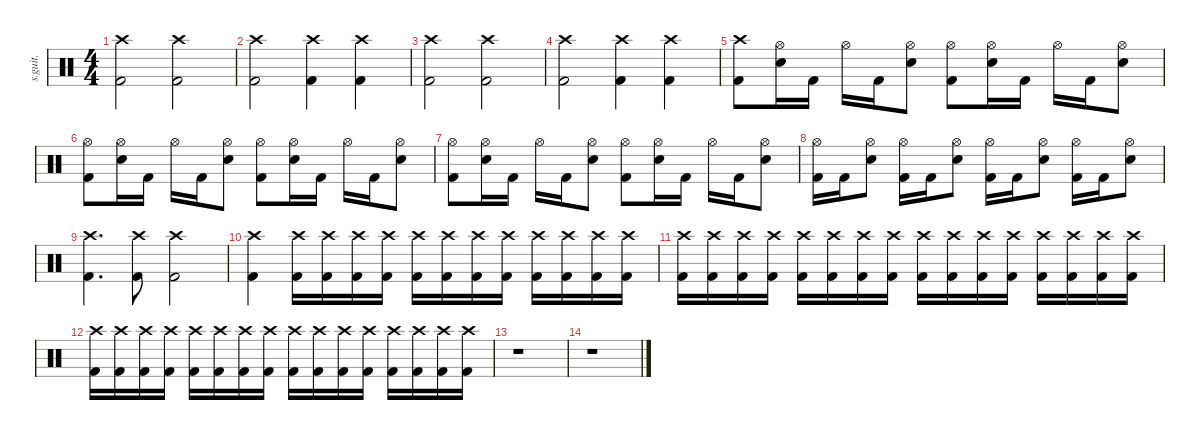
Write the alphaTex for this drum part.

\defaultSystemsLayout 4
\hideDynamics
\bracketExtendMode nobrackets
\track ("" "s.guit.") {instrument percussion}
\staff {score}
\articulation defaults
\ts (4 4)
\tempo (160 hide)
\clef neutral
\ks c
("Crash high (hit)" "Kick (hit) 2").2{dy f} ("Crash high (hit)" "Kick (hit) 2").2 |
("Crash high (hit)" "Kick (hit) 2").2 ("Crash high (hit)" "Kick (hit) 2").4 ("Crash high (hit)" "Kick (hit) 2").4 |
("Crash high (hit)" "Kick (hit) 2").2 ("Crash high (hit)" "Kick (hit) 2").2 |
("Crash high (hit)" "Kick (hit) 2").2 ("Crash high (hit)" "Kick (hit) 2").4 ("Crash high (hit)" "Kick (hit) 2").4 |
("Crash high (hit)" "Kick (hit) 2").8 ("Hi-Hat (open)" "Snare (hit) 2").16 "Kick (hit) 2".16 "Hi-Hat (open)".16 "Kick (hit) 2".16 ("Hi-Hat (open)" "Snare (hit) 2").8 ("Hi-Hat (open)" "Kick (hit) 2").8 ("Hi-Hat (open)" "Snare (hit) 2").16 "Kick (hit) 2".16 "Hi-Hat (open)".16 "Kick (hit) 2".16 ("Hi-Hat (open)" "Snare (hit) 2").8 |
("Hi-Hat (open)" "Kick (hit) 2").8 ("Hi-Hat (open)" "Snare (hit) 2").16 "Kick (hit) 2".16 "Hi-Hat (open)".16 "Kick (hit) 2".16 ("Hi-Hat (open)" "Snare (hit) 2").8 ("Hi-Hat (open)" "Kick (hit) 2").8 ("Hi-Hat (open)" "Snare (hit) 2").16 "Kick (hit) 2".16 "Hi-Hat (open)".16 "Kick (hit) 2".16 ("Hi-Hat (open)" "Snare (hit) 2").8 |
("Hi-Hat (open)" "Kick (hit) 2").8 ("Hi-Hat (open)" "Snare (hit) 2").16 "Kick (hit) 2".16 "Hi-Hat (open)".16 "Kick (hit) 2".16 ("Hi-Hat (open)" "Snare (hit) 2").8 ("Hi-Hat (open)" "Kick (hit) 2").8 ("Hi-Hat (open)" "Snare (hit) 2").16 "Kick (hit) 2".16 "Hi-Hat (open)".16 "Kick (hit) 2".16 ("Hi-Hat (open)" "Snare (hit) 2").8 |
("Hi-Hat (open)" "Kick (hit) 2").16 "Kick (hit) 2".16 ("Hi-Hat (open)" "Snare (hit) 2").8 ("Hi-Hat (open)" "Kick (hit) 2").16 "Kick (hit) 2".16 ("Hi-Hat (open)" "Snare (hit) 2").8 ("Hi-Hat (open)" "Kick (hit) 2").16 "Kick (hit) 2".16 ("Hi-Hat (open)" "Snare (hit) 2").8 ("Hi-Hat (open)" "Kick (hit) 2").16 "Kick (hit) 2".16 ("Hi-Hat (open)" "Snare (hit) 2").8 |
\tempo (120 hide)
("Crash high (hit)" "Kick (hit) 2").4{d} ("Crash high (hit)" "Kick (hit) 2").8 ("Crash high (hit)" "Kick (hit) 2").2 |
\tempo (100 hide)
("Crash high (hit)" "Kick (hit) 2").4 ("Crash high (hit)" "Kick (hit) 2").16 ("Crash high (hit)" "Kick (hit) 2").16 ("Crash high (hit)" "Kick (hit) 2").16 ("Crash high (hit)" "Kick (hit) 2").16 ("Crash high (hit)" "Kick (hit) 2").16 ("Crash high (hit)" "Kick (hit) 2").16 ("Crash high (hit)" "Kick (hit) 2").16 ("Crash high (hit)" "Kick (hit) 2").16 ("Crash high (hit)" "Kick (hit) 2").16 ("Crash high (hit)" "Kick (hit) 2").16 ("Crash high (hit)" "Kick (hit) 2").16 ("Crash high (hit)" "Kick (hit) 2").16 |
\tempo (160 hide)
("Crash high (hit)" "Kick (hit) 2").16 ("Crash high (hit)" "Kick (hit) 2").16 ("Crash high (hit)" "Kick (hit) 2").16 ("Crash high (hit)" "Kick (hit) 2").16 ("Crash high (hit)" "Kick (hit) 2").16 ("Crash high (hit)" "Kick (hit) 2").16 ("Crash high (hit)" "Kick (hit) 2").16 ("Crash high (hit)" "Kick (hit) 2").16 ("Crash high (hit)" "Kick (hit) 2").16 ("Crash high (hit)" "Kick (hit) 2").16 ("Crash high (hit)" "Kick (hit) 2").16 ("Crash high (hit)" "Kick (hit) 2").16 ("Crash high (hit)" "Kick (hit) 2").16 ("Crash high (hit)" "Kick (hit) 2").16 ("Crash high (hit)" "Kick (hit) 2").16 ("Crash high (hit)" "Kick (hit) 2").16 |
\tempo (100 hide)
("Crash high (hit)" "Kick (hit) 2").16 ("Crash high (hit)" "Kick (hit) 2").16 ("Crash high (hit)" "Kick (hit) 2").16 ("Crash high (hit)" "Kick (hit) 2").16 ("Crash high (hit)" "Kick (hit) 2").16 ("Crash high (hit)" "Kick (hit) 2").16 ("Crash high (hit)" "Kick (hit) 2").16 ("Crash high (hit)" "Kick (hit) 2").16 ("Crash high (hit)" "Kick (hit) 2").16 ("Crash high (hit)" "Kick (hit) 2").16 ("Crash high (hit)" "Kick (hit) 2").16 ("Crash high (hit)" "Kick (hit) 2").16 ("Crash high (hit)" "Kick (hit) 2").16 ("Crash high (hit)" "Kick (hit) 2").16 ("Crash high (hit)" "Kick (hit) 2").16 ("Crash high (hit)" "Kick (hit) 2").16 |
\tempo (160 hide)
r.1 |
\tempo (120 hide)
r.1
